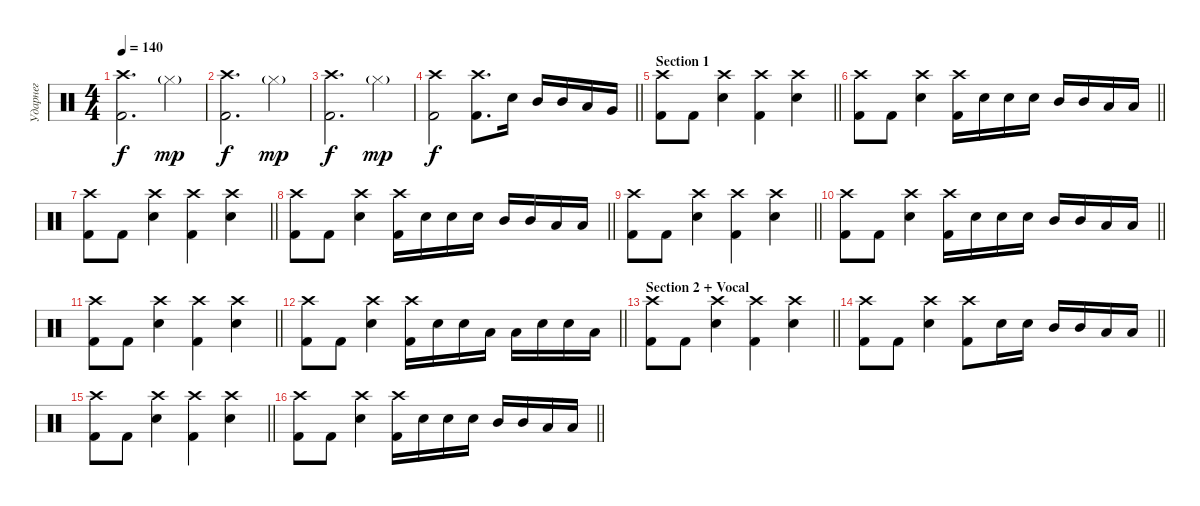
\track ("Ударнег" "Ударнег") {instrument percussion}
\staff {score}
\articulation defaults
\ts (4 4)
\tempo 140
\clef neutral
\ks c
("Crash high (hit)" "Kick (hit) 2").2{d dy f} "Hi-Hat (closed)"{g}.4{dy mp} |
("Crash high (hit)" "Kick (hit) 2").2{d dy f} "Hi-Hat (closed)"{g}.4{dy mp} |
("Crash high (hit)" "Kick (hit) 2").2{d dy f} "Hi-Hat (closed)"{g}.4{dy mp} |
\barLineRight lightlight
("Crash high (hit)" "Kick (hit) 2").2{dy f} ("Crash high (hit)" "Kick (hit) 2").8{d} "Snare (hit) 2".16 "Mid Tom (hit)".16 "Mid Tom (hit)".16 "Low Tom (hit)".16 "Very Low Tom (hit)".16 |
\section ("" "Section 1")
\barLineRight lightlight
("Crash high (hit)" "Kick (hit) 2").8 "Kick (hit) 2".8 ("Crash high (hit)" "Snare (hit) 2").4 ("Crash high (hit)" "Kick (hit) 2").4 ("Crash high (hit)" "Snare (hit) 2").4 |
\barLineRight lightlight
("Crash high (hit)" "Kick (hit) 2").8 "Kick (hit) 2".8 ("Crash high (hit)" "Snare (hit) 2").4 ("Crash high (hit)" "Kick (hit) 2").16 "Snare (hit) 2".16 "Snare (hit) 2".16 "Snare (hit) 2".16 "Mid Tom (hit)".16 "Mid Tom (hit)".16 "Low Tom (hit)".16 "Low Tom (hit)".16 |
\barLineRight lightlight
("Crash high (hit)" "Kick (hit) 2").8 "Kick (hit) 2".8 ("Crash high (hit)" "Snare (hit) 2").4 ("Crash high (hit)" "Kick (hit) 2").4 ("Crash high (hit)" "Snare (hit) 2").4 |
\barLineRight lightlight
("Crash high (hit)" "Kick (hit) 2").8 "Kick (hit) 2".8 ("Crash high (hit)" "Snare (hit) 2").4 ("Crash high (hit)" "Kick (hit) 2").16 "Snare (hit) 2".16 "Snare (hit) 2".16 "Snare (hit) 2".16 "Mid Tom (hit)".16 "Mid Tom (hit)".16 "Low Tom (hit)".16 "Low Tom (hit)".16 |
\barLineRight lightlight
("Crash high (hit)" "Kick (hit) 2").8 "Kick (hit) 2".8 ("Crash high (hit)" "Snare (hit) 2").4 ("Crash high (hit)" "Kick (hit) 2").4 ("Crash high (hit)" "Snare (hit) 2").4 |
\barLineRight lightlight
("Crash high (hit)" "Kick (hit) 2").8 "Kick (hit) 2".8 ("Crash high (hit)" "Snare (hit) 2").4 ("Crash high (hit)" "Kick (hit) 2").16 "Snare (hit) 2".16 "Snare (hit) 2".16 "Snare (hit) 2".16 "Mid Tom (hit)".16 "Mid Tom (hit)".16 "Low Tom (hit)".16 "Low Tom (hit)".16 |
\barLineRight lightlight
("Crash high (hit)" "Kick (hit) 2").8 "Kick (hit) 2".8 ("Crash high (hit)" "Snare (hit) 2").4 ("Crash high (hit)" "Kick (hit) 2").4 ("Crash high (hit)" "Snare (hit) 2").4 |
\barLineRight lightlight
("Crash high (hit)" "Kick (hit) 2").8 "Kick (hit) 2".8 ("Crash high (hit)" "Snare (hit) 2").4 ("Crash high (hit)" "Kick (hit) 2").16 "Snare (hit) 2".16 "Snare (hit) 2".16 "Low Tom (hit)".16 "Low Tom (hit)".16 "Snare (hit) 2".16 "Snare (hit) 2".16 "Low Tom (hit)".16 |
\section ("" "Section 2 + Vocal")
\barLineRight lightlight
("Crash high (hit)" "Kick (hit) 2").8 "Kick (hit) 2".8 ("Crash high (hit)" "Snare (hit) 2").4 ("Crash high (hit)" "Kick (hit) 2").4 ("Crash high (hit)" "Snare (hit) 2").4 |
\barLineRight lightlight
("Crash high (hit)" "Kick (hit) 2").8 "Kick (hit) 2".8 ("Crash high (hit)" "Snare (hit) 2").4 ("Crash high (hit)" "Kick (hit) 2").8 "Snare (hit) 2".16 "Snare (hit) 2".16 "Mid Tom (hit)".16 "Mid Tom (hit)".16 "Low Tom (hit)".16 "Low Tom (hit)".16 |
\barLineRight lightlight
("Crash high (hit)" "Kick (hit) 2").8 "Kick (hit) 2".8 ("Crash high (hit)" "Snare (hit) 2").4 ("Crash high (hit)" "Kick (hit) 2").4 ("Crash high (hit)" "Snare (hit) 2").4 |
\barLineRight lightlight
("Crash high (hit)" "Kick (hit) 2").8 "Kick (hit) 2".8 ("Crash high (hit)" "Snare (hit) 2").4 ("Crash high (hit)" "Kick (hit) 2").16 "Snare (hit) 2".16 "Snare (hit) 2".16 "Snare (hit) 2".16 "Mid Tom (hit)".16 "Mid Tom (hit)".16 "Low Tom (hit)".16 "Low Tom (hit)".16
